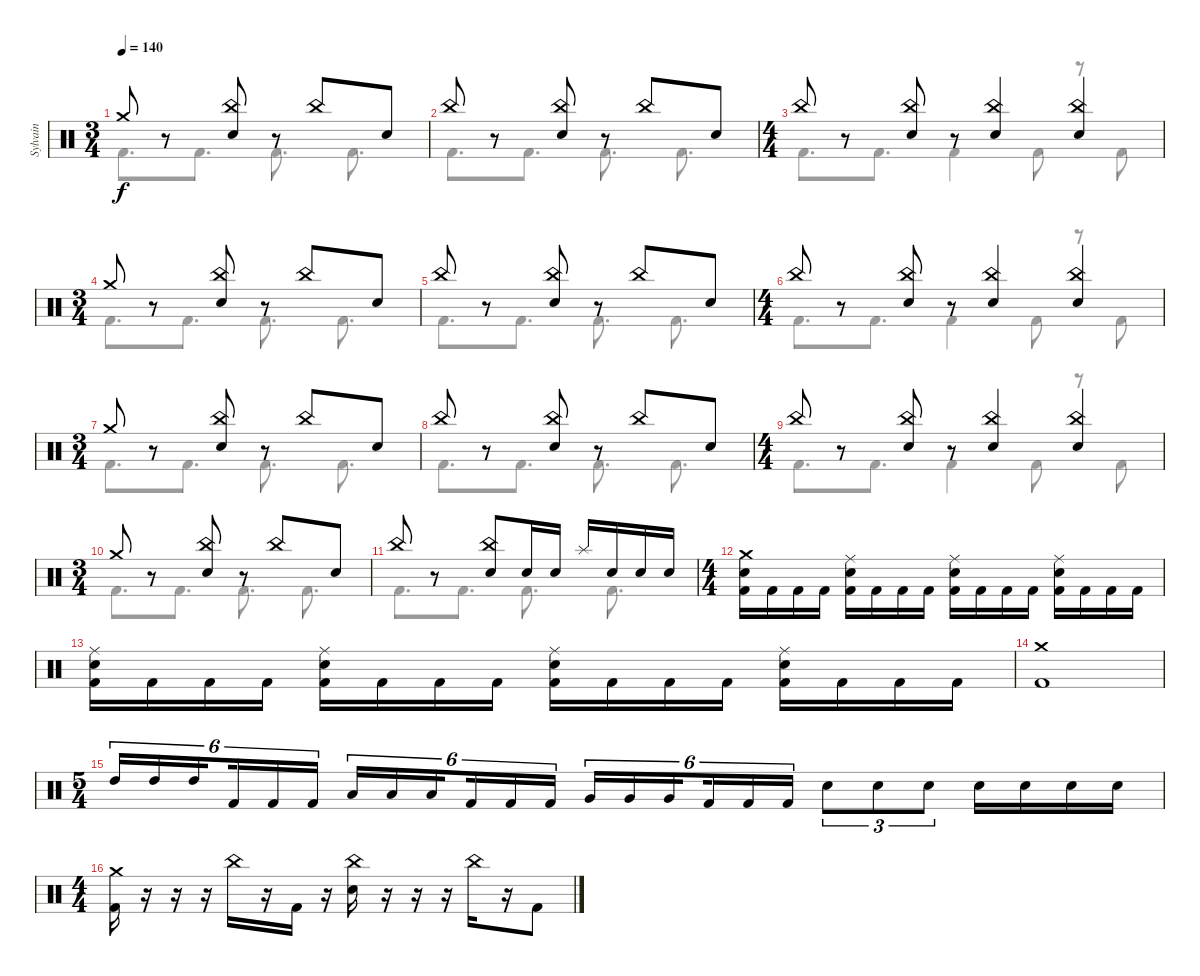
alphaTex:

\track ("Sylvain" "Sylvain") {instrument percussion}
\staff {score}
\articulation defaults
\voice
\ts (3 4)
\tempo 140
\clef neutral
\ks c "Crash medium (hit)".8{dy f}
r.8 ("China (hit)" "Snare (hit) 2").8 r.8 "China (hit)".8 "Snare (hit) 2".8 |
"China (hit)".8 r.8 ("China (hit)" "Snare (hit) 2").8 r.8 "China (hit)".8 "Snare (hit) 2".8 |
\ts (4 4)
"China (hit)".8 r.8 ("China (hit)" "Snare (hit) 2").8 r.8 ("China (hit)" "Snare (hit) 2").4 ("China (hit)" "Snare (hit) 2").4 |
\ts (3 4)
"Crash medium (hit)".8 r.8 ("China (hit)" "Snare (hit) 2").8 r.8 "China (hit)".8 "Snare (hit) 2".8 |
"China (hit)".8 r.8 ("China (hit)" "Snare (hit) 2").8 r.8 "China (hit)".8 "Snare (hit) 2".8 |
\ts (4 4)
"China (hit)".8 r.8 ("China (hit)" "Snare (hit) 2").8 r.8 ("China (hit)" "Snare (hit) 2").4 ("China (hit)" "Snare (hit) 2").4 |
\ts (3 4)
"Crash medium (hit)".8 r.8 ("China (hit)" "Snare (hit) 2").8 r.8 "China (hit)".8 "Snare (hit) 2".8 |
"China (hit)".8 r.8 ("China (hit)" "Snare (hit) 2").8 r.8 "China (hit)".8 "Snare (hit) 2".8 |
\ts (4 4)
"China (hit)".8 r.8 ("China (hit)" "Snare (hit) 2").8 r.8 ("China (hit)" "Snare (hit) 2").4 ("China (hit)" "Snare (hit) 2").4 |
\ts (3 4)
"Crash medium (hit)".8 r.8 ("China (hit)" "Snare (hit) 2").8 r.8 "China (hit)".8 "Snare (hit) 2".8 |
"China (hit)".8 r.8 ("China (hit)" "Snare (hit) 2").8 "Snare (hit) 2".16 "Snare (hit) 2".16 "Splash (hit)".16 "Snare (hit) 2".16 "Snare (hit) 2".16 "Snare (hit) 2".16 |
\ts (4 4)
("Crash medium (hit)" "Snare (hit) 2" "Kick (hit) 2").16 "Kick (hit) 2".16 "Kick (hit) 2".16 "Kick (hit) 2".16 ("Ride (middle)" "Snare (hit) 2" "Kick (hit) 2").16 "Kick (hit) 2".16 "Kick (hit) 2".16 "Kick (hit) 2".16 ("Ride (middle)" "Snare (hit) 2" "Kick (hit) 2").16 "Kick (hit) 2".16 "Kick (hit) 2".16 "Kick (hit) 2".16 ("Ride (middle)" "Snare (hit) 2" "Kick (hit) 2").16 "Kick (hit) 2".16 "Kick (hit) 2".16 "Kick (hit) 2".16 |
("Ride (middle)" "Snare (hit) 2" "Kick (hit) 2").16 "Kick (hit) 2".16 "Kick (hit) 2".16 "Kick (hit) 2".16 ("Ride (middle)" "Snare (hit) 2" "Kick (hit) 2").16 "Kick (hit) 2".16 "Kick (hit) 2".16 "Kick (hit) 2".16 ("Ride (middle)" "Snare (hit) 2" "Kick (hit) 2").16 "Kick (hit) 2".16 "Kick (hit) 2".16 "Kick (hit) 2".16 ("Ride (middle)" "Snare (hit) 2" "Kick (hit) 2").16 "Kick (hit) 2".16 "Kick (hit) 2".16 "Kick (hit) 2".16 |
("Crash medium (hit)" "Kick (hit) 2").1 |
\ts (5 4)
"High Tom (hit)".16{tu (6 4)} "High Tom (hit)".16{tu (6 4)} "High Tom (hit)".16{tu (6 4) beam splitsecondary} "Kick (hit) 2".16{tu (6 4)} "Kick (hit) 2".16{tu (6 4)} "Kick (hit) 2".16{tu (6 4)} "Low Tom (hit)".16{tu (6 4)} "Low Tom (hit)".16{tu (6 4)} "Low Tom (hit)".16{tu (6 4) beam splitsecondary} "Kick (hit) 2".16{tu (6 4)} "Kick (hit) 2".16{tu (6 4)} "Kick (hit) 2".16{tu (6 4)} "Very Low Tom (hit)".16{tu (6 4)} "Very Low Tom (hit)".16{tu (6 4)} "Very Low Tom (hit)".16{tu (6 4) beam splitsecondary} "Kick (hit) 2".16{tu (6 4)} "Kick (hit) 2".16{tu (6 4)} "Kick (hit) 2".16{tu (6 4)} "Snare (hit) 2".8{tu (3 2)} "Snare (hit) 2".8{tu (3 2)} "Snare (hit) 2".8{tu (3 2)} "Snare (hit) 2".16 "Snare (hit) 2".16 "Snare (hit) 2".16 "Snare (hit) 2".16 |
\ts (4 4)
("Crash medium (hit)" "Kick (hit) 2").16 r.16 r.16 r.16 "China (hit)".16 r.16 "Kick (hit) 2".16 r.16 ("China (hit)" "Snare (hit) 2").16 r.16 r.16 r.16 "China (hit)".16 r.16 "Kick (hit) 2".8
\voice
\clef neutral
\ottava regular
\simile none
\ks c "Kick (hit) 2".8{d dy f} "Kick (hit) 2".8{d} "Kick (hit) 2".8{d} "Kick (hit) 2".8{d}
|
"Kick (hit) 2".8{d} "Kick (hit) 2".8{d} "Kick (hit) 2".8{d} "Kick (hit) 2".8{d} |
"Kick (hit) 2".8{d} "Kick (hit) 2".8{d} "Kick (hit) 2".4 "Kick (hit) 2".8 r.8 "Kick (hit) 2".8 |
"Kick (hit) 2".8{d} "Kick (hit) 2".8{d} "Kick (hit) 2".8{d} "Kick (hit) 2".8{d} |
"Kick (hit) 2".8{d} "Kick (hit) 2".8{d} "Kick (hit) 2".8{d} "Kick (hit) 2".8{d} |
"Kick (hit) 2".8{d} "Kick (hit) 2".8{d} "Kick (hit) 2".4 "Kick (hit) 2".8 r.8 "Kick (hit) 2".8 |
"Kick (hit) 2".8{d} "Kick (hit) 2".8{d} "Kick (hit) 2".8{d} "Kick (hit) 2".8{d} |
"Kick (hit) 2".8{d} "Kick (hit) 2".8{d} "Kick (hit) 2".8{d} "Kick (hit) 2".8{d} |
"Kick (hit) 2".8{d} "Kick (hit) 2".8{d} "Kick (hit) 2".4 "Kick (hit) 2".8 r.8 "Kick (hit) 2".8 |
"Kick (hit) 2".8{d} "Kick (hit) 2".8{d} "Kick (hit) 2".8{d} "Kick (hit) 2".8{d} |
"Kick (hit) 2".8{d} "Kick (hit) 2".8{d} "Kick (hit) 2".8{d} "Kick (hit) 2".8{d} |
|
|
|
|
